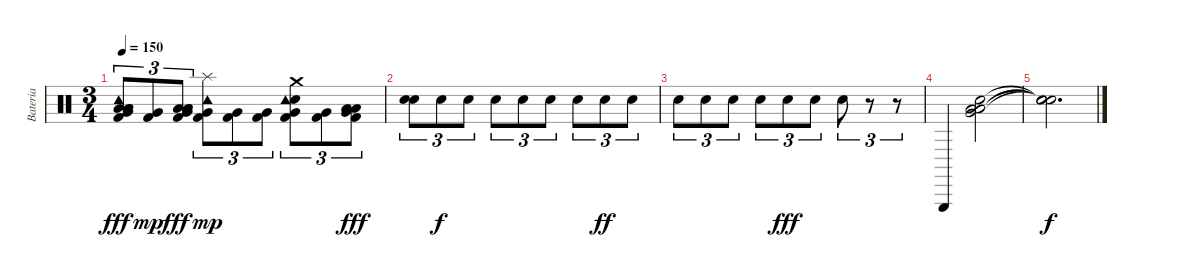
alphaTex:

\track ("Bateria" "Bateria") {instrument percussion}
\staff {score}
\articulation defaults
\ts (3 4)
\tempo 150
\clef neutral
\ks c
("Low Floor Tom (hit)" "Very Low Tom (hit)" "Kick (hit) 2" "Tambourine (hit)" "Low Floor Tom (hit)" "Low Tom (hit)").8{tu (3 2) dy fff} ("Very Low Tom (hit)" "Kick (hit) 2").8{tu (3 2) dy mp} ("Low Floor Tom (hit)" "Very Low Tom (hit)" "Kick (hit) 2" "Low Floor Tom (hit)" "Low Tom (hit)").8{tu (3 2) dy fff} ("Very Low Tom (hit)" "Kick (hit) 2" "Tambourine (hit)" "Splash (hit)").8{tu (3 2) dy mp} ("Very Low Tom (hit)" "Kick (hit) 2").8{tu (3 2)} ("Very Low Tom (hit)" "Kick (hit) 2").8{tu (3 2)} ("Electric Snare (hit)" "Very Low Tom (hit)" "Kick (hit) 2" "Tambourine (hit)" "Crash medium (hit)").8{tu (3 2)} ("Very Low Tom (hit)" "Kick (hit) 2").8{tu (3 2)} ("Very Low Tom (hit)" "Kick (hit) 2" "Low Floor Tom (hit)" "Low Tom (hit)").8{tu (3 2) dy fff} |
("Electric Snare (hit)" "Electric Snare (hit)").8{tu (3 2)} "Electric Snare (hit)".8{tu (3 2) dy f} "Electric Snare (hit)".8{tu (3 2)} "Electric Snare (hit)".8{tu (3 2)} "Electric Snare (hit)".8{tu (3 2)} "Electric Snare (hit)".8{tu (3 2)} "Electric Snare (hit)".8{tu (3 2)} "Electric Snare (hit)".8{tu (3 2) dy ff} "Electric Snare (hit)".8{tu (3 2)} |
"Electric Snare (hit)".8{tu (3 2)} "Electric Snare (hit)".8{tu (3 2)} "Electric Snare (hit)".8{tu (3 2)} "Electric Snare (hit)".8{tu (3 2)} "Electric Snare (hit)".8{tu (3 2) dy fff} "Electric Snare (hit)".8{tu (3 2)} "Electric Snare (hit)".8{tu (3 2)} r.8{tu (3 2)} r.8{tu (3 2)} |
"Triangle (hit)".4 ("Low Floor Tom (hit)" "Very Low Tom (hit)" "Low Tom (hit)" "Electric Snare (hit)").2 |
("Snare (hit)"{t} "Snare (hit)"{t} "Snare (hit)"{t} "Snare (hit)"{t}).2{d dy f}
